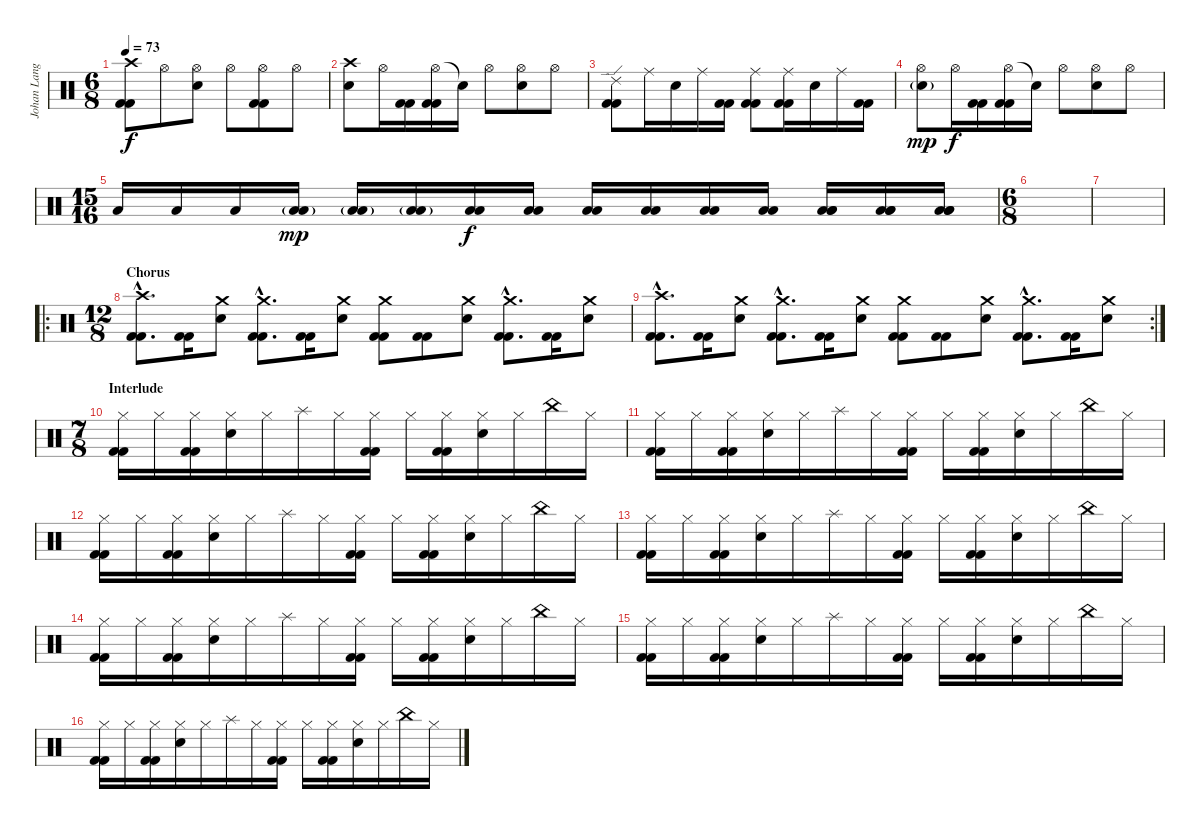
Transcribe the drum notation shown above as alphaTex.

\track ("Johan Langell" "Johan Lang") {instrument percussion}
\staff {score}
\articulation defaults
\ts (6 8)
\tempo 73
\clef neutral
\ks c
("Crash high (hit)" "Kick (hit) 2" "Kick (hit) 2").8{dy f} "Hi-Hat (open)".8 ("Hi-Hat (open)" "Snare (hit) 2").8 "Hi-Hat (open)".8 ("Hi-Hat (open)" "Kick (hit) 2" "Kick (hit) 2").8 "Hi-Hat (open)".8 |
("Crash high (hit)" "Snare (hit) 2").8 "Hi-Hat (open)".16 ("Kick (hit) 2" "Kick (hit) 2").16 ("Hi-Hat (open)" "Kick (hit) 2" "Kick (hit) 2").16 "Snare (hit)"{t}.16 "Hi-Hat (open)".8 ("Hi-Hat (open)" "Snare (hit) 2").8 "Hi-Hat (open)".8 |
("Ride (edge) 2" "Kick (hit) 2" "Kick (hit) 2").8 "Ride (middle)".16 "Snare (hit) 2".16 "Ride (middle)".16 ("Kick (hit) 2" "Kick (hit) 2").16 ("Ride (middle)" "Kick (hit) 2" "Kick (hit) 2").8 ("Ride (middle)" "Kick (hit) 2" "Kick (hit) 2").16 "Snare (hit) 2".16 "Ride (middle)".16 ("Kick (hit) 2" "Kick (hit) 2").16 |
("Hi-Hat (open)" "Electric Snare (hit)"{g}).8{dy mp} "Hi-Hat (open)".16{dy f} ("Kick (hit) 2" "Kick (hit) 2").16 ("Hi-Hat (open)" "Kick (hit) 2" "Kick (hit) 2").16 "Snare (hit)"{t}.16 "Hi-Hat (open)".8 ("Hi-Hat (open)" "Snare (hit) 2").8 "Hi-Hat (open)".8 |
\ts (15 16)
"Low Floor Tom (hit)".16 "Low Floor Tom (hit)".16 "Low Floor Tom (hit)".16 ("Low Floor Tom (hit)" "Low Floor Tom (hit)"{g}).16{dy mp} ("Low Floor Tom (hit)" "Low Floor Tom (hit)"{g}).16 ("Low Floor Tom (hit)" "Low Floor Tom (hit)"{g}).16 ("Low Floor Tom (hit)" "Low Floor Tom (hit)").16{dy f} ("Low Floor Tom (hit)" "Low Floor Tom (hit)").16 ("Low Floor Tom (hit)" "Low Floor Tom (hit)").16 ("Low Floor Tom (hit)" "Low Floor Tom (hit)").16 ("Low Floor Tom (hit)" "Low Floor Tom (hit)").16 ("Low Floor Tom (hit)" "Low Floor Tom (hit)").16 ("Low Floor Tom (hit)" "Low Floor Tom (hit)" "Low Floor Tom (hit)").16 ("Low Floor Tom (hit)" "Low Floor Tom (hit)" "Low Floor Tom (hit)").16 ("Low Floor Tom (hit)" "Low Floor Tom (hit)" "Low Floor Tom (hit)").16 |
\ts (6 8)
|
|
\ro
\ts (12 8)
\section ("" "Chorus")
("Crash high (hit)"{hac} "Kick (hit) 2"{hac} "Kick (hit) 2"{hac}).8{d} ("Kick (hit) 2" "Kick (hit) 2").16 ("Crash medium (hit)" "Snare (hit) 2").8 ("Crash medium (hit)"{hac} "Kick (hit) 2"{hac} "Kick (hit) 2"{hac}).8{d} ("Kick (hit) 2" "Kick (hit) 2").16 ("Crash medium (hit)" "Snare (hit) 2").8 ("Crash medium (hit)" "Kick (hit) 2" "Kick (hit) 2").8 ("Kick (hit) 2" "Kick (hit) 2").8 ("Crash medium (hit)" "Snare (hit) 2").8 ("Crash medium (hit)"{hac} "Kick (hit) 2"{hac} "Kick (hit) 2"{hac}).8{d} ("Kick (hit) 2" "Kick (hit) 2").16 ("Crash medium (hit)" "Snare (hit) 2").8 |
\rc 2
("Crash high (hit)"{hac} "Kick (hit) 2"{hac} "Kick (hit) 2"{hac}).8{d} ("Kick (hit) 2" "Kick (hit) 2").16 ("Crash medium (hit)" "Snare (hit) 2").8 ("Crash medium (hit)"{hac} "Kick (hit) 2"{hac} "Kick (hit) 2"{hac}).8{d} ("Kick (hit) 2" "Kick (hit) 2").16 ("Crash medium (hit)" "Snare (hit) 2").8 ("Crash medium (hit)" "Kick (hit) 2" "Kick (hit) 2").8 ("Kick (hit) 2" "Kick (hit) 2").8 ("Crash medium (hit)" "Snare (hit) 2").8 ("Crash medium (hit)"{hac} "Kick (hit) 2"{hac} "Kick (hit) 2"{hac}).8{d} ("Kick (hit) 2" "Kick (hit) 2").16 ("Crash medium (hit)" "Snare (hit) 2").8 |
\ts (7 8)
\section ("" "Interlude")
("Hi-Hat (closed)" "Kick (hit) 2" "Kick (hit) 2").16 "Hi-Hat (closed)".16 ("Hi-Hat (closed)" "Kick (hit) 2" "Kick (hit) 2").16 ("Hi-Hat (closed)" "Snare (hit) 2").16 "Hi-Hat (closed)".16 "Splash (hit)".16 "Hi-Hat (closed)".16 ("Hi-Hat (closed)" "Kick (hit) 2" "Kick (hit) 2").16 "Hi-Hat (closed)".16 ("Hi-Hat (closed)" "Kick (hit) 2" "Kick (hit) 2").16 ("Hi-Hat (closed)" "Snare (hit) 2").16 "Hi-Hat (closed)".16 "China (hit)".16 "Hi-Hat (closed)".16 |
("Hi-Hat (closed)" "Kick (hit) 2" "Kick (hit) 2").16 "Hi-Hat (closed)".16 ("Hi-Hat (closed)" "Kick (hit) 2" "Kick (hit) 2").16 ("Hi-Hat (closed)" "Snare (hit) 2").16 "Hi-Hat (closed)".16 "Splash (hit)".16 "Hi-Hat (closed)".16 ("Hi-Hat (closed)" "Kick (hit) 2" "Kick (hit) 2").16 "Hi-Hat (closed)".16 ("Hi-Hat (closed)" "Kick (hit) 2" "Kick (hit) 2").16 ("Hi-Hat (closed)" "Snare (hit) 2").16 "Hi-Hat (closed)".16 "China (hit)".16 "Hi-Hat (closed)".16 |
("Hi-Hat (closed)" "Kick (hit) 2" "Kick (hit) 2").16 "Hi-Hat (closed)".16 ("Hi-Hat (closed)" "Kick (hit) 2" "Kick (hit) 2").16 ("Hi-Hat (closed)" "Snare (hit) 2").16 "Hi-Hat (closed)".16 "Splash (hit)".16 "Hi-Hat (closed)".16 ("Hi-Hat (closed)" "Kick (hit) 2" "Kick (hit) 2").16 "Hi-Hat (closed)".16 ("Hi-Hat (closed)" "Kick (hit) 2" "Kick (hit) 2").16 ("Hi-Hat (closed)" "Snare (hit) 2").16 "Hi-Hat (closed)".16 "China (hit)".16 "Hi-Hat (closed)".16 |
("Hi-Hat (closed)" "Kick (hit) 2" "Kick (hit) 2").16 "Hi-Hat (closed)".16 ("Hi-Hat (closed)" "Kick (hit) 2" "Kick (hit) 2").16 ("Hi-Hat (closed)" "Snare (hit) 2").16 "Hi-Hat (closed)".16 "Splash (hit)".16 "Hi-Hat (closed)".16 ("Hi-Hat (closed)" "Kick (hit) 2" "Kick (hit) 2").16 "Hi-Hat (closed)".16 ("Hi-Hat (closed)" "Kick (hit) 2" "Kick (hit) 2").16 ("Hi-Hat (closed)" "Snare (hit) 2").16 "Hi-Hat (closed)".16 "China (hit)".16 "Hi-Hat (closed)".16 |
("Hi-Hat (closed)" "Kick (hit) 2" "Kick (hit) 2").16 "Hi-Hat (closed)".16 ("Hi-Hat (closed)" "Kick (hit) 2" "Kick (hit) 2").16 ("Hi-Hat (closed)" "Snare (hit) 2").16 "Hi-Hat (closed)".16 "Splash (hit)".16 "Hi-Hat (closed)".16 ("Hi-Hat (closed)" "Kick (hit) 2" "Kick (hit) 2").16 "Hi-Hat (closed)".16 ("Hi-Hat (closed)" "Kick (hit) 2" "Kick (hit) 2").16 ("Hi-Hat (closed)" "Snare (hit) 2").16 "Hi-Hat (closed)".16 "China (hit)".16 "Hi-Hat (closed)".16 |
("Hi-Hat (closed)" "Kick (hit) 2" "Kick (hit) 2").16 "Hi-Hat (closed)".16 ("Hi-Hat (closed)" "Kick (hit) 2" "Kick (hit) 2").16 ("Hi-Hat (closed)" "Snare (hit) 2").16 "Hi-Hat (closed)".16 "Splash (hit)".16 "Hi-Hat (closed)".16 ("Hi-Hat (closed)" "Kick (hit) 2" "Kick (hit) 2").16 "Hi-Hat (closed)".16 ("Hi-Hat (closed)" "Kick (hit) 2" "Kick (hit) 2").16 ("Hi-Hat (closed)" "Snare (hit) 2").16 "Hi-Hat (closed)".16 "China (hit)".16 "Hi-Hat (closed)".16 |
("Hi-Hat (closed)" "Kick (hit) 2" "Kick (hit) 2").16 "Hi-Hat (closed)".16 ("Hi-Hat (closed)" "Kick (hit) 2" "Kick (hit) 2").16 ("Hi-Hat (closed)" "Snare (hit) 2").16 "Hi-Hat (closed)".16 "Splash (hit)".16 "Hi-Hat (closed)".16 ("Hi-Hat (closed)" "Kick (hit) 2" "Kick (hit) 2").16 "Hi-Hat (closed)".16 ("Hi-Hat (closed)" "Kick (hit) 2" "Kick (hit) 2").16 ("Hi-Hat (closed)" "Snare (hit) 2").16 "Hi-Hat (closed)".16 "China (hit)".16 "Hi-Hat (closed)".16
